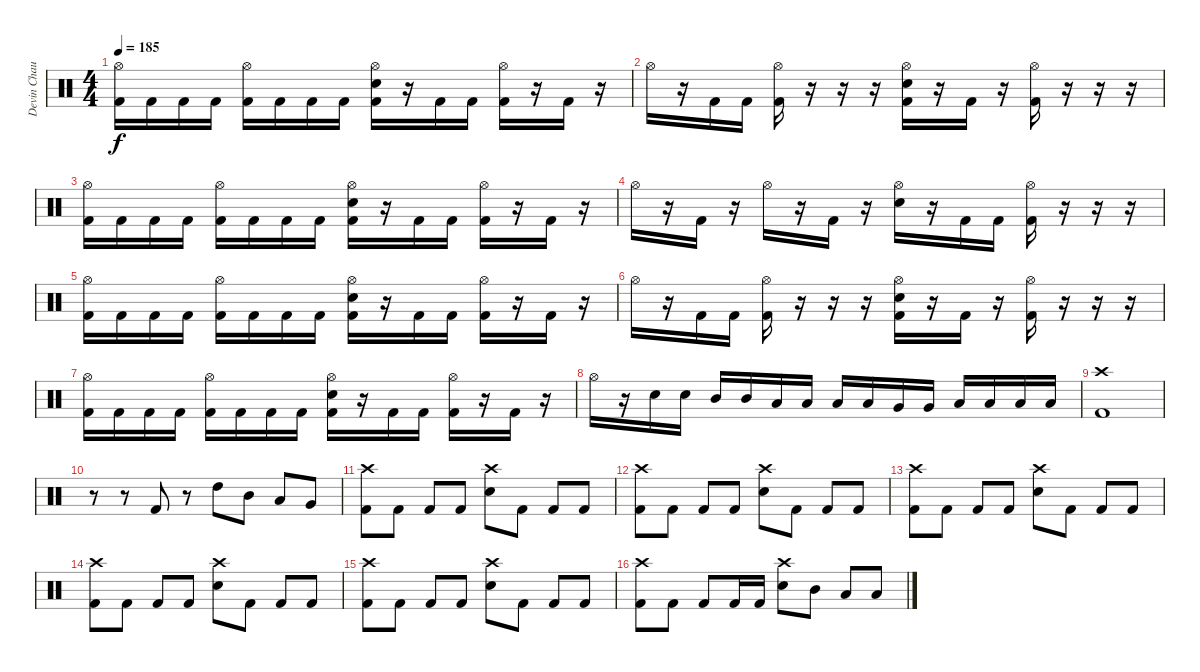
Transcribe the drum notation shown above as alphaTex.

\track ("Devin Chaulk" "Devin Chau") {instrument percussion}
\staff {score}
\articulation defaults
\ts (4 4)
\tempo 185
\clef neutral
\ks c
("Hi-Hat (open)" "Kick (hit) 2").16{dy f} "Kick (hit) 2".16 "Kick (hit) 2".16 "Kick (hit) 2".16 ("Hi-Hat (open)" "Kick (hit) 2").16 "Kick (hit) 2".16 "Kick (hit) 2".16 "Kick (hit) 2".16 ("Hi-Hat (open)" "Snare (hit) 2" "Kick (hit) 2").16 r.16 "Kick (hit) 2".16 "Kick (hit) 2".16 ("Hi-Hat (open)" "Kick (hit) 2").16 r.16 "Kick (hit) 2".16 r.16 |
"Hi-Hat (open)".16 r.16 "Kick (hit) 2".16 "Kick (hit) 2".16 ("Hi-Hat (open)" "Kick (hit) 2").16 r.16 r.16 r.16 ("Hi-Hat (open)" "Snare (hit) 2" "Kick (hit) 2").16 r.16 "Kick (hit) 2".16 r.16 ("Hi-Hat (open)" "Kick (hit) 2").16 r.16 r.16 r.16 |
("Hi-Hat (open)" "Kick (hit) 2").16 "Kick (hit) 2".16 "Kick (hit) 2".16 "Kick (hit) 2".16 ("Hi-Hat (open)" "Kick (hit) 2").16 "Kick (hit) 2".16 "Kick (hit) 2".16 "Kick (hit) 2".16 ("Hi-Hat (open)" "Snare (hit) 2" "Kick (hit) 2").16 r.16 "Kick (hit) 2".16 "Kick (hit) 2".16 ("Hi-Hat (open)" "Kick (hit) 2").16 r.16 "Kick (hit) 2".16 r.16 |
"Hi-Hat (open)".16 r.16 "Kick (hit) 2".16 r.16 "Hi-Hat (open)".16 r.16 "Kick (hit) 2".16 r.16 ("Hi-Hat (open)" "Snare (hit) 2").16 r.16 "Kick (hit) 2".16 "Kick (hit) 2".16 ("Hi-Hat (open)" "Kick (hit) 2").16 r.16 r.16 r.16 |
("Hi-Hat (open)" "Kick (hit) 2").16 "Kick (hit) 2".16 "Kick (hit) 2".16 "Kick (hit) 2".16 ("Hi-Hat (open)" "Kick (hit) 2").16 "Kick (hit) 2".16 "Kick (hit) 2".16 "Kick (hit) 2".16 ("Hi-Hat (open)" "Snare (hit) 2" "Kick (hit) 2").16 r.16 "Kick (hit) 2".16 "Kick (hit) 2".16 ("Hi-Hat (open)" "Kick (hit) 2").16 r.16 "Kick (hit) 2".16 r.16 |
"Hi-Hat (open)".16 r.16 "Kick (hit) 2".16 "Kick (hit) 2".16 ("Hi-Hat (open)" "Kick (hit) 2").16 r.16 r.16 r.16 ("Hi-Hat (open)" "Snare (hit) 2" "Kick (hit) 2").16 r.16 "Kick (hit) 2".16 r.16 ("Hi-Hat (open)" "Kick (hit) 2").16 r.16 r.16 r.16 |
("Hi-Hat (open)" "Kick (hit) 2").16 "Kick (hit) 2".16 "Kick (hit) 2".16 "Kick (hit) 2".16 ("Hi-Hat (open)" "Kick (hit) 2").16 "Kick (hit) 2".16 "Kick (hit) 2".16 "Kick (hit) 2".16 ("Hi-Hat (open)" "Snare (hit) 2" "Kick (hit) 2").16 r.16 "Kick (hit) 2".16 "Kick (hit) 2".16 ("Hi-Hat (open)" "Kick (hit) 2").16 r.16 "Kick (hit) 2".16 r.16 |
"Hi-Hat (open)".16 r.16 "Snare (hit) 2".16 "Snare (hit) 2".16 "Mid Tom (hit)".16 "Mid Tom (hit)".16 "Low Tom (hit)".16 "Low Tom (hit)".16 "Low Tom (hit)".16 "Low Tom (hit)".16 "Very Low Tom (hit)".16 "Very Low Tom (hit)".16 "Low Floor Tom (hit)".16 "Low Floor Tom (hit)".16 "Low Floor Tom (hit)".16 "Low Floor Tom (hit)".16 |
("Crash high (hit)" "Kick (hit) 2").1 |
r.8 r.8 "Kick (hit) 2".8 r.8 "High Tom (hit)".8 "Mid Tom (hit)".8 "Low Tom (hit)".8 "Very Low Tom (hit)".8 |
("Crash high (hit)" "Kick (hit) 2").8 "Kick (hit) 2".8 "Kick (hit) 2".8 "Kick (hit) 2".8 ("Crash high (hit)" "Snare (hit) 2").8 "Kick (hit) 2".8 "Kick (hit) 2".8 "Kick (hit) 2".8 |
("Crash high (hit)" "Kick (hit) 2").8 "Kick (hit) 2".8 "Kick (hit) 2".8 "Kick (hit) 2".8 ("Crash high (hit)" "Snare (hit) 2").8 "Kick (hit) 2".8 "Kick (hit) 2".8 "Kick (hit) 2".8 |
("Crash high (hit)" "Kick (hit) 2").8 "Kick (hit) 2".8 "Kick (hit) 2".8 "Kick (hit) 2".8 ("Crash high (hit)" "Snare (hit) 2").8 "Kick (hit) 2".8 "Kick (hit) 2".8 "Kick (hit) 2".8 |
("Crash high (hit)" "Kick (hit) 2").8 "Kick (hit) 2".8 "Kick (hit) 2".8 "Kick (hit) 2".8 ("Crash high (hit)" "Snare (hit) 2").8 "Kick (hit) 2".8 "Kick (hit) 2".8 "Kick (hit) 2".8 |
("Crash high (hit)" "Kick (hit) 2").8 "Kick (hit) 2".8 "Kick (hit) 2".8 "Kick (hit) 2".8 ("Crash high (hit)" "Snare (hit) 2").8 "Kick (hit) 2".8 "Kick (hit) 2".8 "Kick (hit) 2".8 |
("Crash high (hit)" "Kick (hit) 2").8 "Kick (hit) 2".8 "Kick (hit) 2".8 "Kick (hit) 2".16 "Kick (hit) 2".16 ("Crash high (hit)" "Snare (hit) 2").8 "Mid Tom (hit)".8 "Low Tom (hit)".8 "Low Floor Tom (hit)".8
